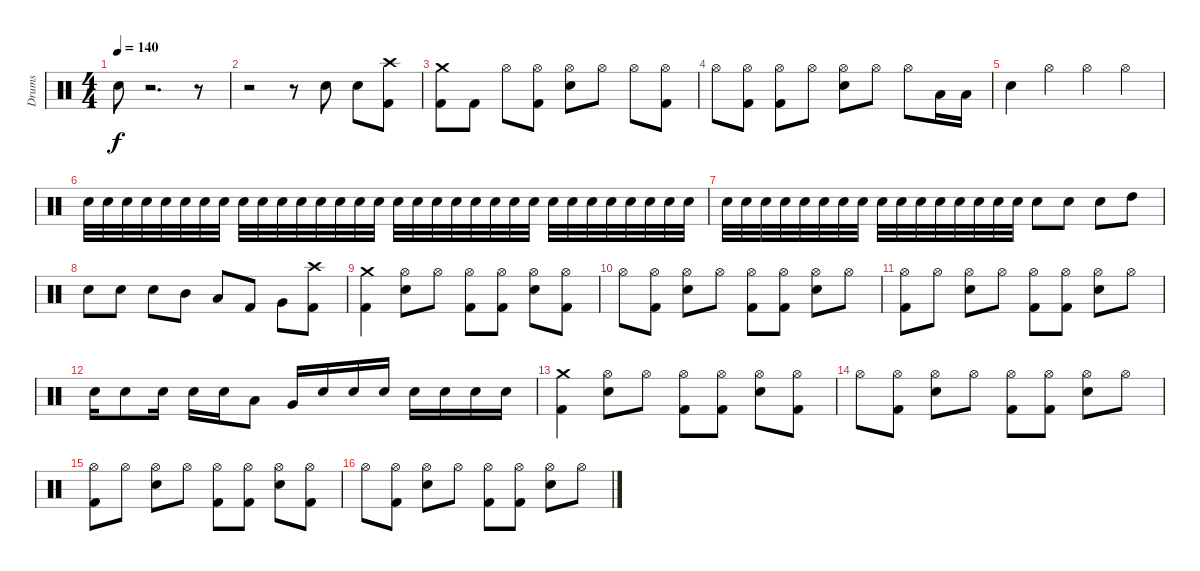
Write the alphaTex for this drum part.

\track ("Drums" "Drums") {instrument percussion}
\staff {score}
\articulation defaults
\ts (4 4)
\tempo 140
\clef neutral
\ks c "Snare (hit) 2".8{dy f}
r.2{d} r.8 |
r.2 r.8 "Snare (hit) 2".8 "Snare (hit) 2".8 ("Kick (hit) 2" "Crash high (hit)").8 |
("Crash medium (hit)" "Kick (hit) 2").8 "Kick (hit) 2".8 "Hi-Hat (open)".8 ("Hi-Hat (open)" "Kick (hit) 2").8 ("Hi-Hat (open)" "Snare (hit) 2").8 "Hi-Hat (open)".8 "Hi-Hat (open)".8 ("Hi-Hat (open)" "Kick (hit) 2").8 |
"Hi-Hat (open)".8 ("Hi-Hat (open)" "Kick (hit) 2").8 ("Kick (hit) 2" "Hi-Hat (open)").8 "Hi-Hat (open)".8 ("Hi-Hat (open)" "Snare (hit) 2").8 "Hi-Hat (open)".8 "Hi-Hat (open)".8 "Low Tom (hit)".16 "Low Tom (hit)".16 |
"Snare (hit) 2".4 "Hi-Hat (open)".4 "Hi-Hat (open)".4 "Hi-Hat (open)".4 |
"Snare (hit) 2".32 "Snare (hit) 2".32 "Snare (hit) 2".32 "Snare (hit) 2".32 "Snare (hit) 2".32 "Snare (hit) 2".32 "Snare (hit) 2".32 "Snare (hit) 2".32 "Snare (hit) 2".32 "Snare (hit) 2".32 "Snare (hit) 2".32 "Snare (hit) 2".32 "Snare (hit) 2".32 "Snare (hit) 2".32 "Snare (hit) 2".32 "Snare (hit) 2".32 "Snare (hit) 2".32 "Snare (hit) 2".32 "Snare (hit) 2".32 "Snare (hit) 2".32 "Snare (hit) 2".32 "Snare (hit) 2".32 "Snare (hit) 2".32 "Snare (hit) 2".32 "Snare (hit) 2".32 "Snare (hit) 2".32 "Snare (hit) 2".32 "Snare (hit) 2".32 "Snare (hit) 2".32 "Snare (hit) 2".32 "Snare (hit) 2".32 "Snare (hit) 2".32 |
"Snare (hit) 2".32 "Snare (hit) 2".32 "Snare (hit) 2".32 "Snare (hit) 2".32 "Snare (hit) 2".32 "Snare (hit) 2".32 "Snare (hit) 2".32 "Snare (hit) 2".32 "Snare (hit) 2".32 "Snare (hit) 2".32 "Snare (hit) 2".32 "Snare (hit) 2".32 "Snare (hit) 2".32 "Snare (hit) 2".32 "Snare (hit) 2".32 "Snare (hit) 2".32 "Snare (hit) 2".8 "Snare (hit) 2".8 "Snare (hit) 2".8 "High Tom (hit)".8 |
"Snare (hit) 2".8 "Snare (hit) 2".8 "Snare (hit) 2".8 "Mid Tom (hit)".8 "Low Tom (hit)".8 "Kick (hit) 2".8 "Very Low Tom (hit)".8 ("Kick (hit) 2" "Crash high (hit)").8 |
("Kick (hit) 2" "Crash medium (hit)").4 ("Hi-Hat (open)" "Snare (hit) 2").8 "Hi-Hat (open)".8 ("Hi-Hat (open)" "Kick (hit) 2").8 ("Hi-Hat (open)" "Kick (hit) 2").8 ("Hi-Hat (open)" "Snare (hit) 2").8 ("Hi-Hat (open)" "Kick (hit) 2").8 |
"Hi-Hat (open)".8 ("Kick (hit) 2" "Hi-Hat (open)").8 ("Snare (hit) 2" "Hi-Hat (open)").8 "Hi-Hat (open)".8 ("Kick (hit) 2" "Hi-Hat (open)").8 ("Kick (hit) 2" "Hi-Hat (open)").8 ("Snare (hit) 2" "Hi-Hat (open)").8 "Hi-Hat (open)".8 |
("Hi-Hat (open)" "Kick (hit) 2").8 "Hi-Hat (open)".8 ("Hi-Hat (open)" "Snare (hit) 2").8 "Hi-Hat (open)".8 ("Hi-Hat (open)" "Kick (hit) 2").8 ("Hi-Hat (open)" "Kick (hit) 2").8 ("Hi-Hat (open)" "Snare (hit) 2").8 "Hi-Hat (open)".8 |
"Snare (hit) 2".16 "Snare (hit) 2".8 "Snare (hit) 2".16 "Snare (hit) 2".16 "Snare (hit) 2".16 "Low Tom (hit)".8 "Very Low Tom (hit)".16 "Snare (hit) 2".16 "Snare (hit) 2".16 "Snare (hit) 2".16 "Snare (hit) 2".16 "Snare (hit) 2".16 "Snare (hit) 2".16 "Snare (hit) 2".16 |
("Crash medium (hit)" "Kick (hit) 2").4 ("Hi-Hat (open)" "Snare (hit) 2").8 "Hi-Hat (open)".8 ("Hi-Hat (open)" "Kick (hit) 2").8 ("Hi-Hat (open)" "Kick (hit) 2").8 ("Hi-Hat (open)" "Snare (hit) 2").8 ("Kick (hit) 2" "Hi-Hat (open)").8 |
"Hi-Hat (open)".8 ("Kick (hit) 2" "Hi-Hat (open)").8 ("Snare (hit) 2" "Hi-Hat (open)").8 "Hi-Hat (open)".8 ("Kick (hit) 2" "Hi-Hat (open)").8 ("Kick (hit) 2" "Hi-Hat (open)").8 ("Snare (hit) 2" "Hi-Hat (open)").8 "Hi-Hat (open)".8 |
("Kick (hit) 2" "Hi-Hat (open)").8{volume 12} "Hi-Hat (open)".8{volume 12} ("Snare (hit) 2" "Hi-Hat (open)").8{volume 12} "Hi-Hat (open)".8{volume 12} ("Kick (hit) 2" "Hi-Hat (open)").8{volume 12} ("Kick (hit) 2" "Hi-Hat (open)").8{volume 11} ("Snare (hit) 2" "Hi-Hat (open)").8{volume 11} ("Kick (hit) 2" "Hi-Hat (open)").8{volume 11} |
"Hi-Hat (open)".8{volume 10} ("Hi-Hat (open)" "Kick (hit) 2").8{volume 10} ("Hi-Hat (open)" "Snare (hit) 2").8{volume 10} "Hi-Hat (open)".8{volume 10} ("Hi-Hat (open)" "Kick (hit) 2").8{volume 9} ("Hi-Hat (open)" "Kick (hit) 2").8{volume 9} ("Hi-Hat (open)" "Snare (hit) 2").8{volume 9} "Hi-Hat (open)".8{volume 9}
